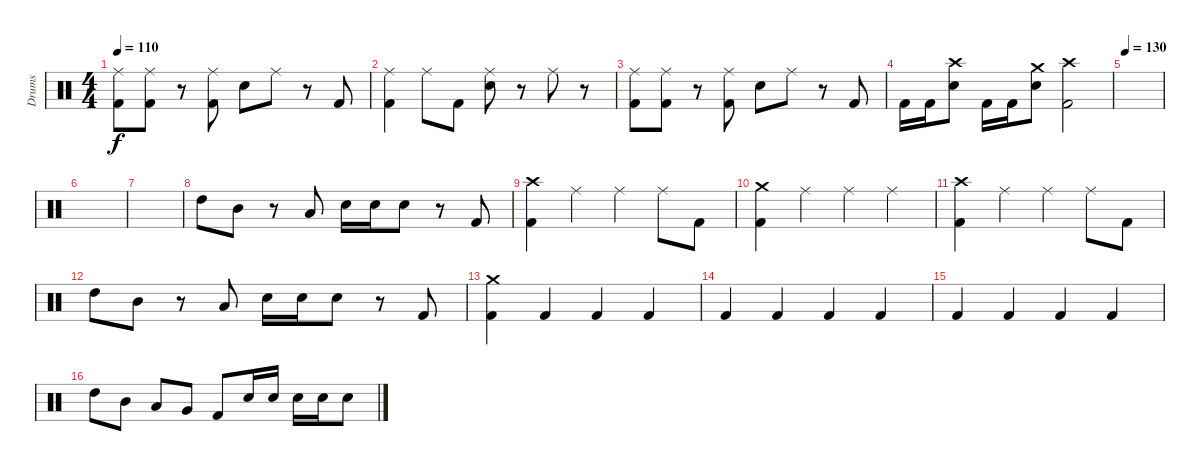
\track ("Drums" "Drums") {instrument percussion}
\staff {score}
\articulation defaults
\ts (4 4)
\tempo 110
\clef neutral
\ks c
("Ride (middle)" "Kick (hit) 2").8{dy f} ("Ride (middle)" "Kick (hit) 2").8 r.8 ("Ride (middle)" "Kick (hit) 2").8 "Electric Snare (hit)".8 "Ride (middle)".8 r.8 "Kick (hit) 2".8 |
("Ride (middle)" "Kick (hit) 2").4 "Ride (middle)".8 "Kick (hit) 2".8 ("Ride (middle)" "Electric Snare (hit)").8 r.8 "Ride (middle)".8 r.8 |
("Ride (middle)" "Kick (hit) 2").8 ("Ride (middle)" "Kick (hit) 2").8 r.8 ("Ride (middle)" "Kick (hit) 2").8 "Electric Snare (hit)".8 "Ride (middle)".8 r.8 "Kick (hit) 2".8 |
"Kick (hit) 2".16 "Kick (hit) 2".16 ("Crash high (hit)" "Electric Snare (hit)").8 "Kick (hit) 2".16 "Kick (hit) 2".16 ("Crash medium (hit)" "Electric Snare (hit)").8 ("Crash high (hit)" "Kick (hit) 2").2 |
\tempo 130
|
|
|
"High Tom (hit)".8 "Mid Tom (hit)".8 r.8 "Low Tom (hit)".8 "Electric Snare (hit)".16 "Electric Snare (hit)".16 "Electric Snare (hit)".8 r.8 "Kick (hit) 2".8 |
("Crash high (hit)" "Kick (hit) 2").4 "Ride (middle)".4 "Ride (middle)".4 "Ride (middle)".8 "Kick (hit) 2".8 |
("Crash medium (hit)" "Kick (hit) 2").4 "Ride (middle)".4 "Ride (middle)".4 "Ride (middle)".4 |
("Crash high (hit)" "Kick (hit) 2").4 "Ride (middle)".4 "Ride (middle)".4 "Ride (middle)".8 "Kick (hit) 2".8 |
"High Tom (hit)".8 "Mid Tom (hit)".8 r.8 "Low Tom (hit)".8 "Electric Snare (hit)".16 "Electric Snare (hit)".16 "Electric Snare (hit)".8 r.8 "Kick (hit) 2".8 |
("Kick (hit) 2" "Crash medium (hit)").4 "Kick (hit) 2".4 "Kick (hit) 2".4 "Kick (hit) 2".4 |
"Kick (hit) 2".4 "Kick (hit) 2".4 "Kick (hit) 2".4 "Kick (hit) 2".4 |
"Kick (hit) 2".4 "Kick (hit) 2".4 "Kick (hit) 2".4 "Kick (hit) 2".4 |
"High Tom (hit)".8 "Mid Tom (hit)".8 "Low Tom (hit)".8 "Very Low Tom (hit)".8 "Kick (hit) 2".8 "Electric Snare (hit)".16 "Electric Snare (hit)".16 "Electric Snare (hit)".16 "Electric Snare (hit)".16 "Electric Snare (hit)".8
